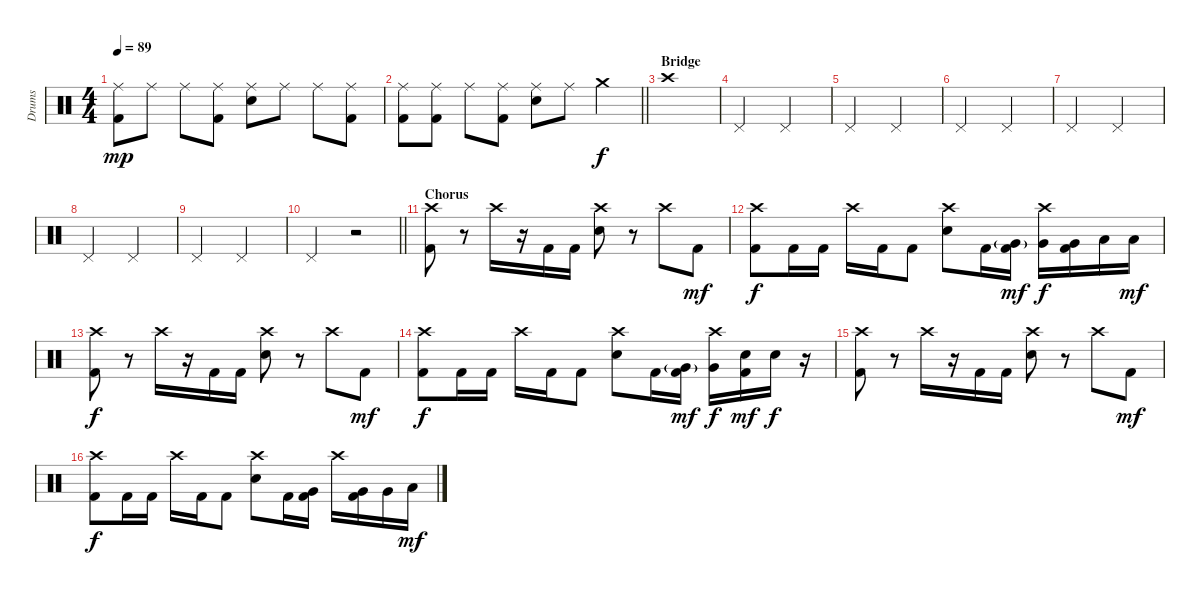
\track ("Drums" "Drums") {instrument percussion}
\staff {score}
\articulation defaults
\ts (4 4)
\tempo 89
\clef neutral
\ks c
("Ride (middle)" "Kick (hit) 2").8{dy mp} "Ride (middle)".8 "Ride (middle)".8 ("Ride (middle)" "Kick (hit) 2").8 ("Ride (middle)" "Electric Snare (hit)").8 "Ride (middle)".8 "Ride (middle)".8 ("Ride (middle)" "Kick (hit) 2").8 |
\barLineRight lightlight
("Ride (middle)" "Kick (hit) 2").8 ("Ride (middle)" "Kick (hit) 2").8 "Ride (middle)".8 ("Ride (middle)" "Kick (hit) 2").8 ("Ride (middle)" "Electric Snare (hit)").8 "Ride (middle)".8 "Crash medium (hit)".4{dy f} |
\section ("" "Bridge")
"Crash high (hit)".1 |
"Pedal Hi-Hat (hit)".2 "Pedal Hi-Hat (hit)".2 |
"Pedal Hi-Hat (hit)".2 "Pedal Hi-Hat (hit)".2 |
"Pedal Hi-Hat (hit)".2 "Pedal Hi-Hat (hit)".2 |
"Pedal Hi-Hat (hit)".2 "Pedal Hi-Hat (hit)".2 |
"Pedal Hi-Hat (hit)".2 "Pedal Hi-Hat (hit)".2 |
"Pedal Hi-Hat (hit)".2 "Pedal Hi-Hat (hit)".2 |
\barLineRight lightlight "Pedal Hi-Hat (hit)".2
r.2 |
\section ("" "Chorus")
("Crash high (hit)" "Kick (hit) 2").8 r.8 "Crash high (hit)".16 r.16 "Kick (hit) 2".16 "Kick (hit) 2".16 ("Crash high (hit)" "Electric Snare (hit)").8 r.8 "Crash high (hit)".8 "Kick (hit) 2".8{dy mf} |
("Crash high (hit)" "Kick (hit) 2").8{dy f} "Kick (hit) 2".16 "Kick (hit) 2".16 "Crash high (hit)".16 "Kick (hit) 2".16 "Kick (hit) 2".8 ("Crash high (hit)" "Electric Snare (hit)").8 "Kick (hit) 2".16 ("Very Low Tom (hit)"{g} "Kick (hit) 2").16{dy mf} ("Crash high (hit)" "Very Low Tom (hit)").16{dy f} ("Very Low Tom (hit)" "Kick (hit) 2").16 "Low Floor Tom (hit)".16 "Low Floor Tom (hit)".16{dy mf} |
("Crash high (hit)" "Kick (hit) 2").8{dy f} r.8 "Crash high (hit)".16 r.16 "Kick (hit) 2".16 "Kick (hit) 2".16 ("Crash high (hit)" "Electric Snare (hit)").8 r.8 "Crash high (hit)".8 "Kick (hit) 2".8{dy mf} |
("Crash high (hit)" "Kick (hit) 2").8{dy f} "Kick (hit) 2".16 "Kick (hit) 2".16 "Crash high (hit)".16 "Kick (hit) 2".16 "Kick (hit) 2".8 ("Crash high (hit)" "Electric Snare (hit)").8 "Kick (hit) 2".16 ("Very Low Tom (hit)"{g} "Kick (hit) 2").16{dy mf} ("Crash high (hit)" "Very Low Tom (hit)").16{dy f} ("Electric Snare (hit)" "Kick (hit) 2").16{dy mf} "Electric Snare (hit)".16{dy f} r.16 |
("Crash high (hit)" "Kick (hit) 2").8 r.8 "Crash high (hit)".16 r.16 "Kick (hit) 2".16 "Kick (hit) 2".16 ("Crash high (hit)" "Electric Snare (hit)").8 r.8 "Crash high (hit)".8 "Kick (hit) 2".8{dy mf} |
("Crash high (hit)" "Kick (hit) 2").8{dy f} "Kick (hit) 2".16 "Kick (hit) 2".16 "Crash high (hit)".16 "Kick (hit) 2".16 "Kick (hit) 2".8 ("Crash high (hit)" "Electric Snare (hit)").8 "Kick (hit) 2".16 ("Very Low Tom (hit)" "Kick (hit) 2").16 "Crash high (hit)".16 ("Very Low Tom (hit)" "Kick (hit) 2").16 "Very Low Tom (hit)".16 "Low Floor Tom (hit)".16{dy mf}
